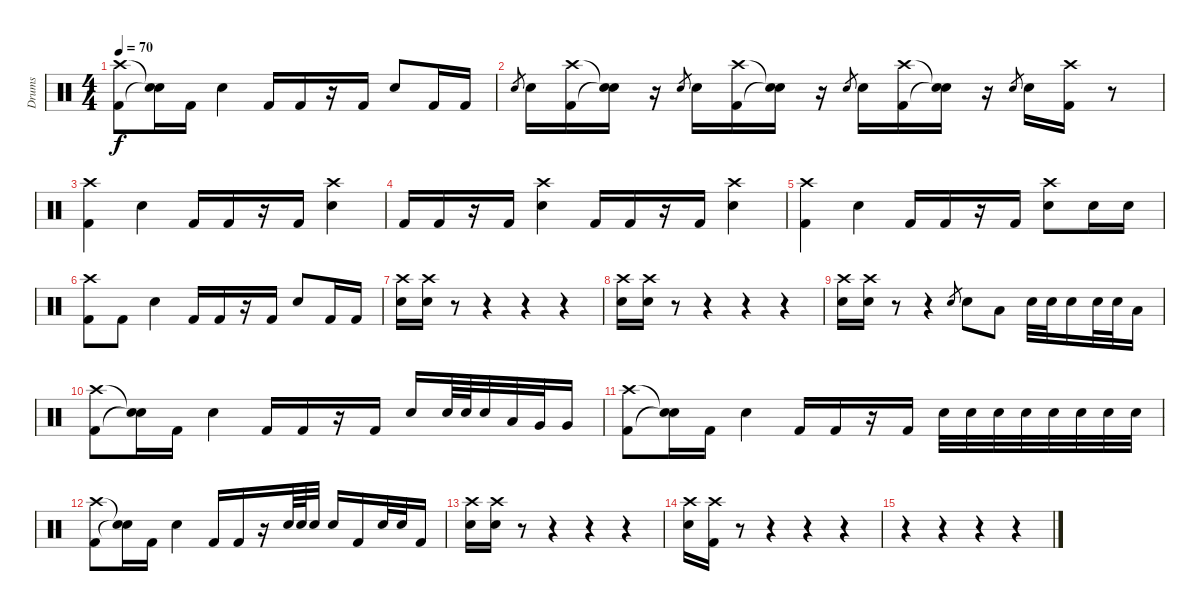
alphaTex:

\track ("Drums" "Drums") {instrument percussion}
\staff {score}
\articulation defaults
\ts (4 4)
\tempo 70
\clef neutral
\ks c
("Crash high (hit)" "Kick (hit) 2").8{dy f} ("Snare (hit)"{t} "Snare (hit)"{t}).16 "Kick (hit) 2".16 "Electric Snare (hit)".4 "Kick (hit) 2".16 "Kick (hit) 2".16 r.16 "Kick (hit) 2".16 "Electric Snare (hit)".8 "Kick (hit) 2".16 "Kick (hit) 2".16 |
"Electric Snare (hit)".8{gr} "Electric Snare (hit)".16 ("Crash high (hit)" "Kick (hit) 2").16 ("Snare (hit)"{t} "Snare (hit)"{t}).16 r.16 "Electric Snare (hit)".8{gr} "Electric Snare (hit)".16 ("Crash high (hit)" "Kick (hit) 2").16 ("Snare (hit)"{t} "Snare (hit)"{t}).16 r.16 "Electric Snare (hit)".8{gr} "Electric Snare (hit)".16 ("Crash high (hit)" "Kick (hit) 2").16 ("Snare (hit)"{t} "Snare (hit)"{t}).16 r.16 "Electric Snare (hit)".8{gr} "Electric Snare (hit)".16 ("Crash high (hit)" "Kick (hit) 2").16 r.8 |
("Crash high (hit)" "Kick (hit) 2").4 "Electric Snare (hit)".4 "Kick (hit) 2".16 "Kick (hit) 2".16 r.16 "Kick (hit) 2".16 ("Crash high (hit)" "Electric Snare (hit)").4 |
"Kick (hit) 2".16 "Kick (hit) 2".16 r.16 "Kick (hit) 2".16 ("Crash high (hit)" "Electric Snare (hit)").4 "Kick (hit) 2".16 "Kick (hit) 2".16 r.16 "Kick (hit) 2".16 ("Crash high (hit)" "Electric Snare (hit)").4 |
("Crash high (hit)" "Kick (hit) 2").4 "Electric Snare (hit)".4 "Kick (hit) 2".16 "Kick (hit) 2".16 r.16 "Kick (hit) 2".16 ("Crash high (hit)" "Electric Snare (hit)").8 "Electric Snare (hit)".16 "Electric Snare (hit)".16 |
("Crash high (hit)" "Kick (hit) 2").8 "Kick (hit) 2".8 "Electric Snare (hit)".4 "Kick (hit) 2".16 "Kick (hit) 2".16 r.16 "Kick (hit) 2".16 "Electric Snare (hit)".8 "Kick (hit) 2".16 "Kick (hit) 2".16 |
("Crash high (hit)" "Electric Snare (hit)").16 ("Crash high (hit)" "Electric Snare (hit)").16 r.8 r.4 r.4 r.4 |
("Crash high (hit)" "Electric Snare (hit)").16 ("Crash high (hit)" "Electric Snare (hit)").16 r.8 r.4 r.4 r.4 |
("Crash high (hit)" "Electric Snare (hit)").16 ("Crash high (hit)" "Electric Snare (hit)").16 r.8 r.4 "Electric Snare (hit)".8{gr} "Electric Snare (hit)".8 "Low Tom (hit)".8 "Electric Snare (hit)".32 "Electric Snare (hit)".32 "Electric Snare (hit)".16 "Electric Snare (hit)".32 "Electric Snare (hit)".32 "Low Tom (hit)".16 |
("Crash high (hit)" "Kick (hit) 2").8 ("Snare (hit)"{t} "Snare (hit)"{t}).16 "Kick (hit) 2".16 "Electric Snare (hit)".4 "Kick (hit) 2".16 "Kick (hit) 2".16 r.16 "Kick (hit) 2".16 "Electric Snare (hit)".16 "Electric Snare (hit)".64 "Electric Snare (hit)".64 "Electric Snare (hit)".32 "Low Tom (hit)".32 "Very Low Tom (hit)".32 "Very Low Tom (hit)".16 |
("Crash high (hit)" "Kick (hit) 2").8 ("Snare (hit)"{t} "Snare (hit)"{t}).16 "Kick (hit) 2".16 "Electric Snare (hit)".4 "Kick (hit) 2".16 "Kick (hit) 2".16 r.16 "Kick (hit) 2".16 "Electric Snare (hit)".32 "Electric Snare (hit)".32 "Electric Snare (hit)".32 "Electric Snare (hit)".32 "Electric Snare (hit)".32 "Electric Snare (hit)".32 "Electric Snare (hit)".32 "Electric Snare (hit)".32 |
("Crash high (hit)" "Kick (hit) 2").8 ("Snare (hit)"{t} "Snare (hit)"{t}).16 "Kick (hit) 2".16 "Electric Snare (hit)".4 "Kick (hit) 2".16 "Kick (hit) 2".16 r.16 "Electric Snare (hit)".64 "Electric Snare (hit)".64 "Electric Snare (hit)".32 "Electric Snare (hit)".16 "Kick (hit) 2".16 "Electric Snare (hit)".32 "Electric Snare (hit)".32 "Kick (hit) 2".16 |
("Crash high (hit)" "Electric Snare (hit)").16 ("Crash high (hit)" "Electric Snare (hit)").16 r.8 r.4 r.4 r.4 |
("Crash high (hit)" "Electric Snare (hit)").16 ("Crash high (hit)" "Kick (hit) 2").16 r.8 r.4 r.4 r.4 |
r.4 r.4 r.4 r.4
